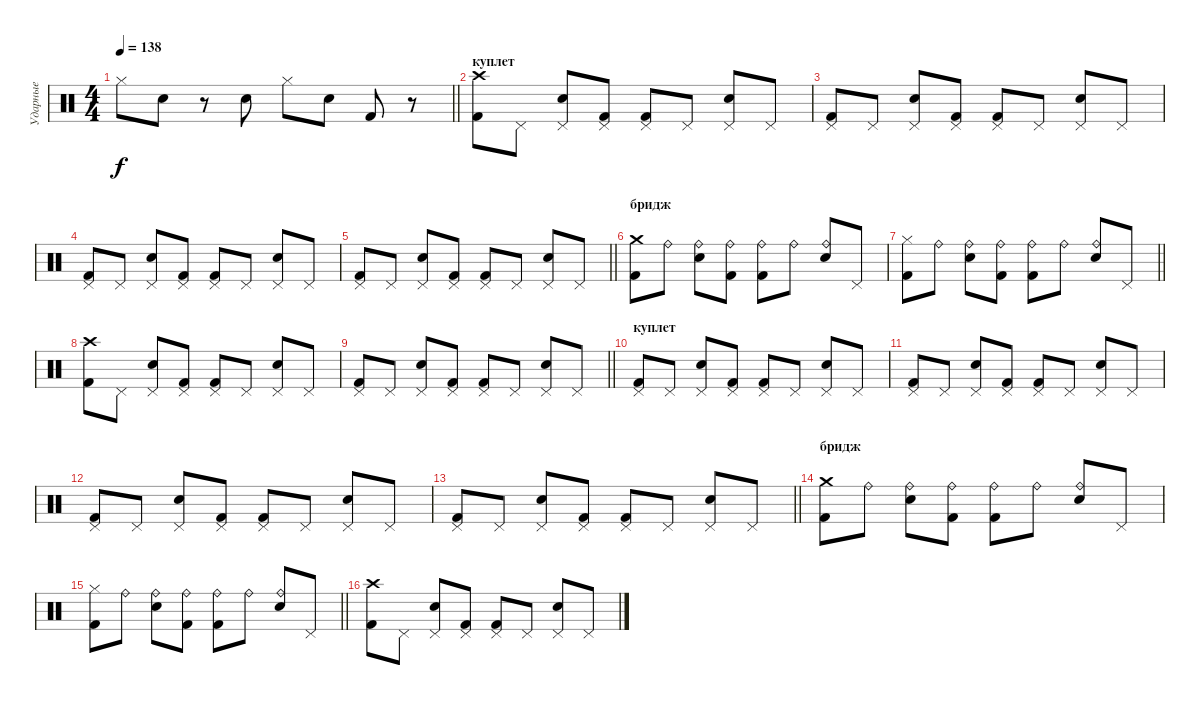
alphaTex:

\track ("Ударные" "Ударные") {instrument percussion}
\staff {score}
\articulation defaults
\ts (4 4)
\tempo 138
\clef neutral
\barLineRight lightlight
\ks c "Hi-Hat (closed)".8{dy f} "Electric Snare (hit)".8
r.8 "Electric Snare (hit)".8 "Hi-Hat (closed)".8 "Electric Snare (hit)".8 "Kick (hit) 2".8 r.8 |
\section ("" "куплет")
("Crash high (hit)" "Kick (hit) 2").8 "Pedal Hi-Hat (hit)".8 ("Pedal Hi-Hat (hit)" "Electric Snare (hit)").8 ("Pedal Hi-Hat (hit)" "Kick (hit) 2").8 ("Pedal Hi-Hat (hit)" "Kick (hit) 2").8 "Pedal Hi-Hat (hit)".8 ("Pedal Hi-Hat (hit)" "Electric Snare (hit)").8 "Pedal Hi-Hat (hit)".8 |
("Pedal Hi-Hat (hit)" "Kick (hit) 2").8 "Pedal Hi-Hat (hit)".8 ("Pedal Hi-Hat (hit)" "Electric Snare (hit)").8 ("Pedal Hi-Hat (hit)" "Kick (hit) 2").8 ("Pedal Hi-Hat (hit)" "Kick (hit) 2").8 "Pedal Hi-Hat (hit)".8 ("Pedal Hi-Hat (hit)" "Electric Snare (hit)").8 "Pedal Hi-Hat (hit)".8 |
("Pedal Hi-Hat (hit)" "Kick (hit) 2").8 "Pedal Hi-Hat (hit)".8 ("Pedal Hi-Hat (hit)" "Electric Snare (hit)").8 ("Pedal Hi-Hat (hit)" "Kick (hit) 2").8 ("Pedal Hi-Hat (hit)" "Kick (hit) 2").8 "Pedal Hi-Hat (hit)".8 ("Pedal Hi-Hat (hit)" "Electric Snare (hit)").8 "Pedal Hi-Hat (hit)".8 |
\barLineRight lightlight
("Pedal Hi-Hat (hit)" "Kick (hit) 2").8 "Pedal Hi-Hat (hit)".8 ("Pedal Hi-Hat (hit)" "Electric Snare (hit)").8 ("Pedal Hi-Hat (hit)" "Kick (hit) 2").8 ("Pedal Hi-Hat (hit)" "Kick (hit) 2").8 "Pedal Hi-Hat (hit)".8 ("Pedal Hi-Hat (hit)" "Electric Snare (hit)").8 "Pedal Hi-Hat (hit)".8 |
\section ("" "бридж")
("Crash medium (hit)" "Kick (hit) 2").8 "Ride (bell)".8 ("Ride (bell)" "Electric Snare (hit)").8 ("Ride (bell)" "Kick (hit) 2").8 ("Ride (bell)" "Kick (hit) 2").8 "Ride (bell)".8 ("Ride (bell)" "Electric Snare (hit)").8 "Pedal Hi-Hat (hit)".8 |
\barLineRight lightlight
("Hi-Hat (closed)" "Kick (hit) 2").8 "Ride (bell)".8 ("Ride (bell)" "Electric Snare (hit)").8 ("Ride (bell)" "Kick (hit) 2").8 ("Ride (bell)" "Kick (hit) 2").8 "Ride (bell)".8 ("Ride (bell)" "Electric Snare (hit)").8 "Pedal Hi-Hat (hit)".8 |
\section ("" "")
("Crash high (hit)" "Kick (hit) 2").8 "Pedal Hi-Hat (hit)".8 ("Pedal Hi-Hat (hit)" "Electric Snare (hit)").8 ("Pedal Hi-Hat (hit)" "Kick (hit) 2").8 ("Pedal Hi-Hat (hit)" "Kick (hit) 2").8 "Pedal Hi-Hat (hit)".8 ("Pedal Hi-Hat (hit)" "Electric Snare (hit)").8 "Pedal Hi-Hat (hit)".8 |
\barLineRight lightlight
("Pedal Hi-Hat (hit)" "Kick (hit) 2").8 "Pedal Hi-Hat (hit)".8 ("Pedal Hi-Hat (hit)" "Electric Snare (hit)").8 ("Pedal Hi-Hat (hit)" "Kick (hit) 2").8 ("Pedal Hi-Hat (hit)" "Kick (hit) 2").8 "Pedal Hi-Hat (hit)".8 ("Pedal Hi-Hat (hit)" "Electric Snare (hit)").8 "Pedal Hi-Hat (hit)".8 |
\section ("" "куплет")
("Pedal Hi-Hat (hit)" "Kick (hit) 2").8 "Pedal Hi-Hat (hit)".8 ("Pedal Hi-Hat (hit)" "Electric Snare (hit)").8 ("Pedal Hi-Hat (hit)" "Kick (hit) 2").8 ("Pedal Hi-Hat (hit)" "Kick (hit) 2").8 "Pedal Hi-Hat (hit)".8 ("Pedal Hi-Hat (hit)" "Electric Snare (hit)").8 "Pedal Hi-Hat (hit)".8 |
("Pedal Hi-Hat (hit)" "Kick (hit) 2").8 "Pedal Hi-Hat (hit)".8 ("Pedal Hi-Hat (hit)" "Electric Snare (hit)").8 ("Pedal Hi-Hat (hit)" "Kick (hit) 2").8 ("Pedal Hi-Hat (hit)" "Kick (hit) 2").8 "Pedal Hi-Hat (hit)".8 ("Pedal Hi-Hat (hit)" "Electric Snare (hit)").8 "Pedal Hi-Hat (hit)".8 |
("Pedal Hi-Hat (hit)" "Kick (hit) 2").8 "Pedal Hi-Hat (hit)".8 ("Pedal Hi-Hat (hit)" "Electric Snare (hit)").8 ("Pedal Hi-Hat (hit)" "Kick (hit) 2").8 ("Pedal Hi-Hat (hit)" "Kick (hit) 2").8 "Pedal Hi-Hat (hit)".8 ("Pedal Hi-Hat (hit)" "Electric Snare (hit)").8 "Pedal Hi-Hat (hit)".8 |
\barLineRight lightlight
("Pedal Hi-Hat (hit)" "Kick (hit) 2").8 "Pedal Hi-Hat (hit)".8 ("Pedal Hi-Hat (hit)" "Electric Snare (hit)").8 ("Pedal Hi-Hat (hit)" "Kick (hit) 2").8 ("Pedal Hi-Hat (hit)" "Kick (hit) 2").8 "Pedal Hi-Hat (hit)".8 ("Pedal Hi-Hat (hit)" "Electric Snare (hit)").8 "Pedal Hi-Hat (hit)".8 |
\section ("" "бридж")
("Crash medium (hit)" "Kick (hit) 2").8 "Ride (bell)".8 ("Ride (bell)" "Electric Snare (hit)").8 ("Ride (bell)" "Kick (hit) 2").8 ("Ride (bell)" "Kick (hit) 2").8 "Ride (bell)".8 ("Ride (bell)" "Electric Snare (hit)").8 "Pedal Hi-Hat (hit)".8 |
\barLineRight lightlight
("Hi-Hat (closed)" "Kick (hit) 2").8 "Ride (bell)".8 ("Ride (bell)" "Electric Snare (hit)").8 ("Ride (bell)" "Kick (hit) 2").8 ("Ride (bell)" "Kick (hit) 2").8 "Ride (bell)".8 ("Ride (bell)" "Electric Snare (hit)").8 "Pedal Hi-Hat (hit)".8 |
("Crash high (hit)" "Kick (hit) 2").8 "Pedal Hi-Hat (hit)".8 ("Pedal Hi-Hat (hit)" "Electric Snare (hit)").8 ("Pedal Hi-Hat (hit)" "Kick (hit) 2").8 ("Pedal Hi-Hat (hit)" "Kick (hit) 2").8 "Pedal Hi-Hat (hit)".8 ("Pedal Hi-Hat (hit)" "Electric Snare (hit)").8 "Pedal Hi-Hat (hit)".8
